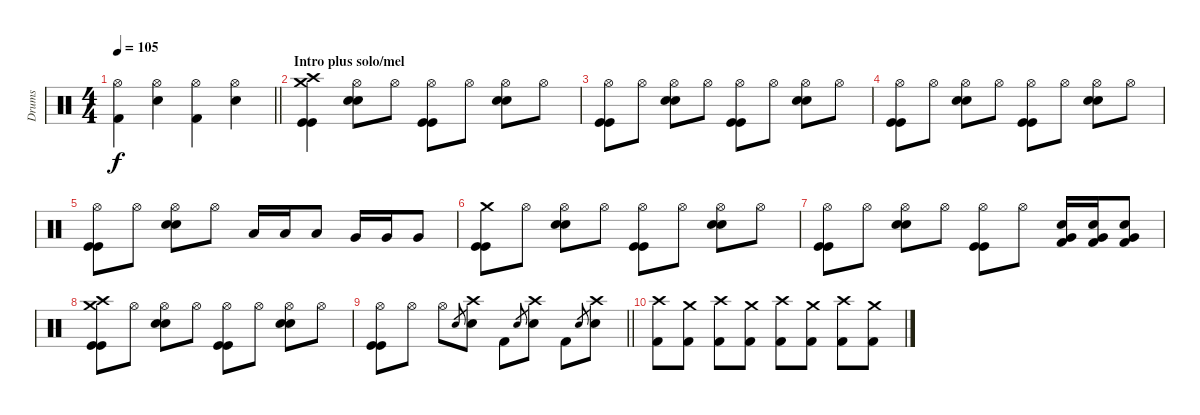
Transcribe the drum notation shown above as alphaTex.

\track ("Drums" "Drums") {instrument percussion}
\staff {score}
\articulation defaults
\ts (4 4)
\tempo 105
\clef neutral
\barLineRight lightlight
\ks c
("Hi-Hat (open)" "Kick (hit) 2").4{dy f} ("Hi-Hat (open)" "Snare (hit) 2").4 ("Hi-Hat (open)" "Kick (hit) 2").4 ("Hi-Hat (open)" "Snare (hit) 2").4 |
\section ("" "Intro plus solo/mel")
("Crash medium (hit)" "Crash high (hit)" "Kick (hit)" "Kick (hit)").4 ("Hi-Hat (open)" "Snare (hit) 2" "Snare (hit) 2").8 "Hi-Hat (open)".8 ("Hi-Hat (open)" "Kick (hit)" "Kick (hit)").8 "Hi-Hat (open)".8 ("Hi-Hat (open)" "Snare (hit) 2" "Snare (hit) 2").8 "Hi-Hat (open)".8 |
("Hi-Hat (open)" "Kick (hit)" "Kick (hit)").8 "Hi-Hat (open)".8 ("Hi-Hat (open)" "Snare (hit) 2" "Snare (hit) 2").8 "Hi-Hat (open)".8 ("Hi-Hat (open)" "Kick (hit)" "Kick (hit)").8 "Hi-Hat (open)".8 ("Hi-Hat (open)" "Snare (hit) 2" "Snare (hit) 2").8 "Hi-Hat (open)".8 |
("Hi-Hat (open)" "Kick (hit)" "Kick (hit)").8 "Hi-Hat (open)".8 ("Hi-Hat (open)" "Snare (hit) 2" "Snare (hit) 2").8 "Hi-Hat (open)".8 ("Hi-Hat (open)" "Kick (hit)" "Kick (hit)").8 "Hi-Hat (open)".8 ("Hi-Hat (open)" "Snare (hit) 2" "Snare (hit) 2").8 "Hi-Hat (open)".8 |
("Hi-Hat (open)" "Kick (hit)" "Kick (hit)").8 "Hi-Hat (open)".8 ("Hi-Hat (open)" "Snare (hit) 2" "Snare (hit) 2").8 "Hi-Hat (open)".8 "Low Tom (hit)".16 "Low Tom (hit)".16 "Low Tom (hit)".8 "Very Low Tom (hit)".16 "Very Low Tom (hit)".16 "Very Low Tom (hit)".8 |
("Crash medium (hit)" "Kick (hit)" "Kick (hit)").8 "Hi-Hat (open)".8 ("Hi-Hat (open)" "Snare (hit) 2" "Snare (hit) 2").8 "Hi-Hat (open)".8 ("Hi-Hat (open)" "Kick (hit)" "Kick (hit)").8 "Hi-Hat (open)".8 ("Hi-Hat (open)" "Snare (hit) 2" "Snare (hit) 2").8 "Hi-Hat (open)".8 |
("Hi-Hat (open)" "Kick (hit)" "Kick (hit)").8 "Hi-Hat (open)".8 ("Hi-Hat (open)" "Snare (hit) 2" "Snare (hit) 2").8 "Hi-Hat (open)".8 ("Hi-Hat (open)" "Kick (hit)" "Kick (hit)").8 "Hi-Hat (open)".8 ("Very Low Tom (hit)" "Snare (hit) 2" "Kick (hit) 2").16 ("Very Low Tom (hit)" "Snare (hit) 2" "Kick (hit) 2").16 ("Very Low Tom (hit)" "Snare (hit) 2" "Kick (hit) 2").8 |
("Crash medium (hit)" "Crash high (hit)" "Kick (hit)" "Kick (hit)").8 "Hi-Hat (open)".8 ("Hi-Hat (open)" "Snare (hit) 2" "Snare (hit) 2").8 "Hi-Hat (open)".8 ("Hi-Hat (open)" "Kick (hit)" "Kick (hit)").8 "Hi-Hat (open)".8 ("Hi-Hat (open)" "Snare (hit) 2" "Snare (hit) 2").8 "Hi-Hat (open)".8 |
\barLineRight lightlight
("Hi-Hat (open)" "Kick (hit)" "Kick (hit)").8 "Hi-Hat (open)".8 "Hi-Hat (open)".8 "Snare (hit) 2".8{gr} ("Crash high (hit)" "Snare (hit) 2").8 "Kick (hit) 2".8 "Snare (hit) 2".8{gr} ("Crash high (hit)" "Snare (hit) 2").8 "Kick (hit) 2".8 "Snare (hit) 2".8{gr} ("Crash high (hit)" "Snare (hit) 2").8 |
("Crash high (hit)" "Kick (hit) 2").8 ("Crash medium (hit)" "Kick (hit) 2").8 ("Crash high (hit)" "Kick (hit) 2").8 ("Crash medium (hit)" "Kick (hit) 2").8 ("Crash high (hit)" "Kick (hit) 2").8 ("Crash medium (hit)" "Kick (hit) 2").8 ("Crash high (hit)" "Kick (hit) 2").8 ("Crash medium (hit)" "Kick (hit) 2").8
